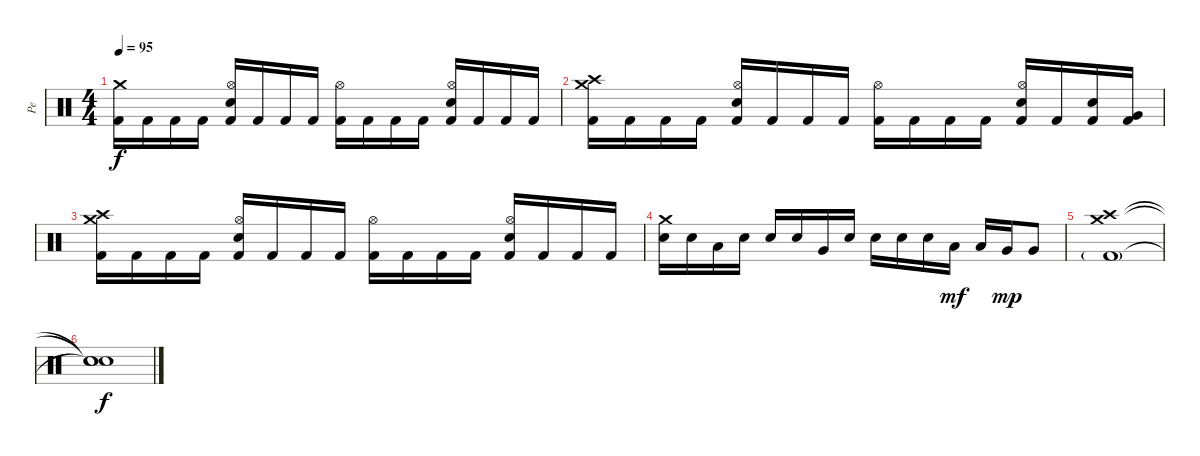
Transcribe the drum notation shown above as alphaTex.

\track ("Pe" "Pe") {instrument percussion}
\staff {score}
\articulation defaults
\ts (4 4)
\tempo 95
\clef neutral
\ks c
("Crash medium (hit)" "Kick (hit) 2").16{dy f} "Kick (hit) 2".16 "Kick (hit) 2".16 "Kick (hit) 2".16 ("Hi-Hat (open)" "Electric Snare (hit)" "Kick (hit) 2").16 "Kick (hit) 2".16 "Kick (hit) 2".16 "Kick (hit) 2".16 ("Hi-Hat (open)" "Kick (hit) 2").16 "Kick (hit) 2".16 "Kick (hit) 2".16 "Kick (hit) 2".16 ("Hi-Hat (open)" "Electric Snare (hit)" "Kick (hit) 2").16 "Kick (hit) 2".16 "Kick (hit) 2".16 "Kick (hit) 2".16 |
("Crash medium (hit)" "Crash high (hit)" "Kick (hit) 2").16 "Kick (hit) 2".16 "Kick (hit) 2".16 "Kick (hit) 2".16 ("Hi-Hat (open)" "Electric Snare (hit)" "Kick (hit) 2").16 "Kick (hit) 2".16 "Kick (hit) 2".16 "Kick (hit) 2".16 ("Hi-Hat (open)" "Kick (hit) 2").16 "Kick (hit) 2".16 "Kick (hit) 2".16 "Kick (hit) 2".16 ("Hi-Hat (open)" "Electric Snare (hit)" "Kick (hit) 2").16 "Kick (hit) 2".16 ("Electric Snare (hit)" "Kick (hit) 2").16 ("Very Low Tom (hit)" "Kick (hit) 2").16 |
("Crash medium (hit)" "Crash high (hit)" "Kick (hit) 2").16 "Kick (hit) 2".16 "Kick (hit) 2".16 "Kick (hit) 2".16 ("Hi-Hat (open)" "Electric Snare (hit)" "Kick (hit) 2").16 "Kick (hit) 2".16 "Kick (hit) 2".16 "Kick (hit) 2".16 ("Hi-Hat (open)" "Kick (hit) 2").16 "Kick (hit) 2".16 "Kick (hit) 2".16 "Kick (hit) 2".16 ("Hi-Hat (open)" "Electric Snare (hit)" "Kick (hit) 2").16 "Kick (hit) 2".16 "Kick (hit) 2".16 "Kick (hit) 2".16 |
("Crash medium (hit)" "Electric Snare (hit)").16 "Electric Snare (hit)".16 "Low Tom (hit)".16 "Electric Snare (hit)".16 "Electric Snare (hit)".16 "Electric Snare (hit)".16 "Very Low Tom (hit)".16 "Electric Snare (hit)".16 "Electric Snare (hit)".16 "Electric Snare (hit)".16 "Electric Snare (hit)".16 "Low Tom (hit)".16{dy mf} "Low Tom (hit)".16 "Very Low Tom (hit)".16{dy mp} "Very Low Tom (hit)".8 |
("Crash medium (hit)" "Crash high (hit)" "Kick (hit) 2"{g}).1 |
("Snare (hit)"{t} "Snare (hit)"{t} "Snare (hit)"{t}).1{dy f}
